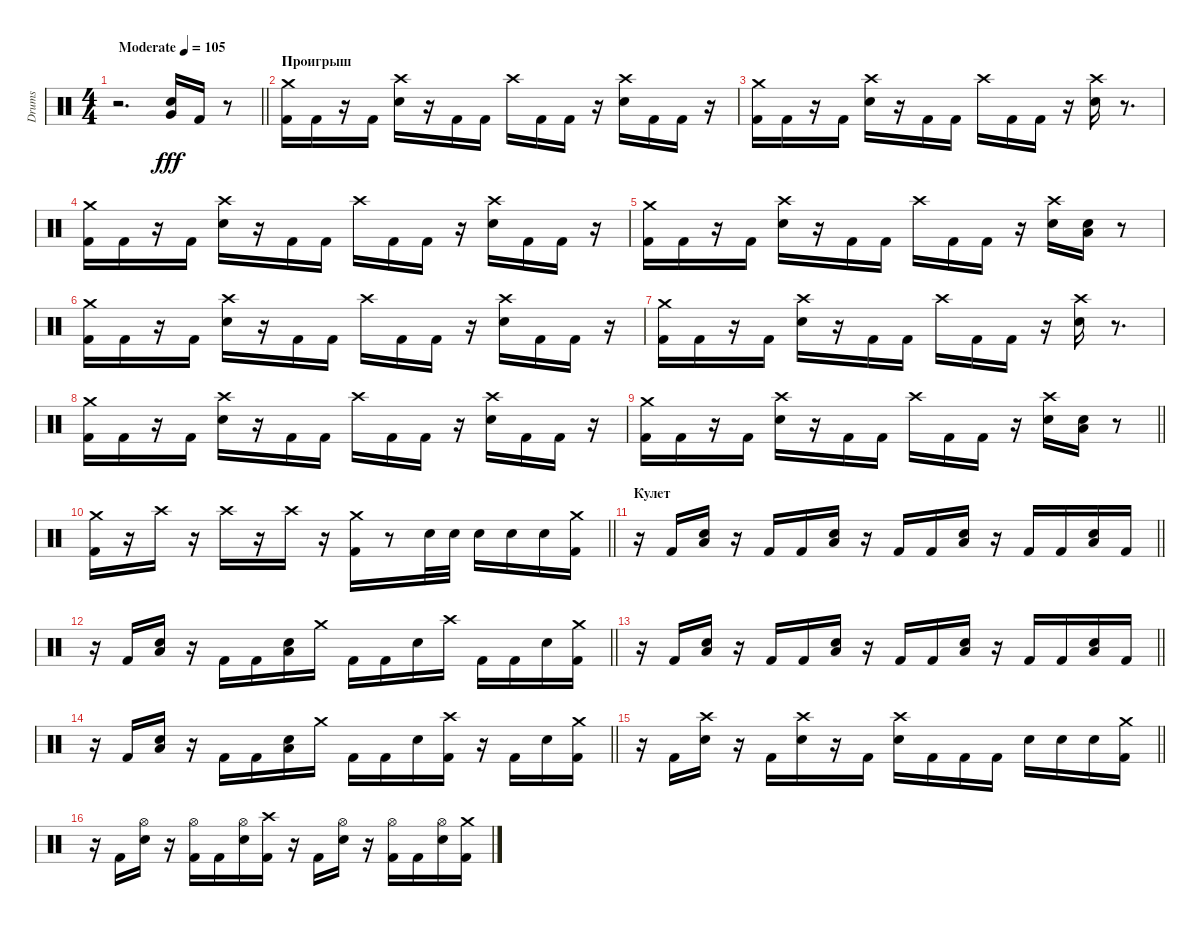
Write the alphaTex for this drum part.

\track ("Drums" "Drums") {instrument percussion}
\staff {score}
\articulation defaults
\ts (4 4)
\tempo (105 "Moderate")
\clef neutral
\barLineRight lightlight
\ks c
r.2{d dy fff} ("Electric Snare (hit)" "Very Low Tom (hit)").16 "Kick (hit) 2".16 r.8 |
\section ("" "Проигрыш")
("Kick (hit) 2" "Crash medium (hit)").16 "Kick (hit) 2".16 r.16 "Kick (hit) 2".16 ("Electric Snare (hit)" "Crash high (hit)").16 r.16 "Kick (hit) 2".16 "Kick (hit) 2".16 "Crash high (hit)".16 "Kick (hit) 2".16 "Kick (hit) 2".16 r.16 ("Electric Snare (hit)" "Crash high (hit)").16 "Kick (hit) 2".16 "Kick (hit) 2".16 r.16 |
("Kick (hit) 2" "Crash medium (hit)").16 "Kick (hit) 2".16 r.16 "Kick (hit) 2".16 ("Electric Snare (hit)" "Crash high (hit)").16 r.16 "Kick (hit) 2".16 "Kick (hit) 2".16 "Crash high (hit)".16 "Kick (hit) 2".16 "Kick (hit) 2".16 r.16 ("Electric Snare (hit)" "Crash high (hit)").16 r.8{d} |
("Kick (hit) 2" "Crash medium (hit)").16 "Kick (hit) 2".16 r.16 "Kick (hit) 2".16 ("Electric Snare (hit)" "Crash high (hit)").16 r.16 "Kick (hit) 2".16 "Kick (hit) 2".16 "Crash high (hit)".16 "Kick (hit) 2".16 "Kick (hit) 2".16 r.16 ("Electric Snare (hit)" "Crash high (hit)").16 "Kick (hit) 2".16 "Kick (hit) 2".16 r.16 |
("Kick (hit) 2" "Crash medium (hit)").16 "Kick (hit) 2".16 r.16 "Kick (hit) 2".16 ("Electric Snare (hit)" "Crash high (hit)").16 r.16 "Kick (hit) 2".16 "Kick (hit) 2".16 "Crash high (hit)".16 "Kick (hit) 2".16 "Kick (hit) 2".16 r.16 ("Electric Snare (hit)" "Crash high (hit)").16 ("Electric Snare (hit)" "Low Floor Tom (hit)").16 r.8 |
("Kick (hit) 2" "Crash medium (hit)").16 "Kick (hit) 2".16 r.16 "Kick (hit) 2".16 ("Electric Snare (hit)" "Crash high (hit)").16 r.16 "Kick (hit) 2".16 "Kick (hit) 2".16 "Crash high (hit)".16 "Kick (hit) 2".16 "Kick (hit) 2".16 r.16 ("Electric Snare (hit)" "Crash high (hit)").16 "Kick (hit) 2".16 "Kick (hit) 2".16 r.16 |
("Kick (hit) 2" "Crash medium (hit)").16 "Kick (hit) 2".16 r.16 "Kick (hit) 2".16 ("Electric Snare (hit)" "Crash high (hit)").16 r.16 "Kick (hit) 2".16 "Kick (hit) 2".16 "Crash high (hit)".16 "Kick (hit) 2".16 "Kick (hit) 2".16 r.16 ("Electric Snare (hit)" "Crash high (hit)").16 r.8{d} |
("Kick (hit) 2" "Crash medium (hit)").16 "Kick (hit) 2".16 r.16 "Kick (hit) 2".16 ("Electric Snare (hit)" "Crash high (hit)").16 r.16 "Kick (hit) 2".16 "Kick (hit) 2".16 "Crash high (hit)".16 "Kick (hit) 2".16 "Kick (hit) 2".16 r.16 ("Electric Snare (hit)" "Crash high (hit)").16 "Kick (hit) 2".16 "Kick (hit) 2".16 r.16 |
\barLineRight lightlight
("Kick (hit) 2" "Crash medium (hit)").16 "Kick (hit) 2".16 r.16 "Kick (hit) 2".16 ("Electric Snare (hit)" "Crash high (hit)").16 r.16 "Kick (hit) 2".16 "Kick (hit) 2".16 "Crash high (hit)".16 "Kick (hit) 2".16 "Kick (hit) 2".16 r.16 ("Electric Snare (hit)" "Crash high (hit)").16 ("Electric Snare (hit)" "Low Floor Tom (hit)").16 r.8 |
\section ("" "")
\barLineRight lightlight
("Kick (hit) 2" "Crash medium (hit)").16 r.16 "Crash high (hit)".16 r.16 "Crash high (hit)".16 r.16 "Crash high (hit)".16 r.16 ("Kick (hit) 2" "Crash medium (hit)").16 r.8 "Electric Snare (hit)".32 "Electric Snare (hit)".32 "Electric Snare (hit)".16 "Electric Snare (hit)".16 "Electric Snare (hit)".16 ("Kick (hit) 2" "Crash medium (hit)").16 |
\section ("" "Кулет")
\barLineRight lightlight
r.16 "Kick (hit) 2".16 ("Electric Snare (hit)" "Low Floor Tom (hit)").16 r.16 "Kick (hit) 2".16 "Kick (hit) 2".16 ("Electric Snare (hit)" "Low Floor Tom (hit)").16 r.16 "Kick (hit) 2".16 "Kick (hit) 2".16 ("Electric Snare (hit)" "Low Floor Tom (hit)").16 r.16 "Kick (hit) 2".16 "Kick (hit) 2".16 ("Electric Snare (hit)" "Low Floor Tom (hit)").16 "Kick (hit) 2".16 |
\barLineRight lightlight
r.16 "Kick (hit) 2".16 ("Electric Snare (hit)" "Low Floor Tom (hit)").16 r.16 "Kick (hit) 2".16 "Kick (hit) 2".16 ("Electric Snare (hit)" "Low Floor Tom (hit)").16 "Crash medium (hit)".16 "Kick (hit) 2".16 "Kick (hit) 2".16 "Electric Snare (hit)".16 "Crash high (hit)".16 "Kick (hit) 2".16 "Kick (hit) 2".16 "Electric Snare (hit)".16 ("Kick (hit) 2" "Crash medium (hit)").16 |
\section ("" "")
\barLineRight lightlight
r.16 "Kick (hit) 2".16 ("Electric Snare (hit)" "Low Floor Tom (hit)").16 r.16 "Kick (hit) 2".16 "Kick (hit) 2".16 ("Electric Snare (hit)" "Low Floor Tom (hit)").16 r.16 "Kick (hit) 2".16 "Kick (hit) 2".16 ("Electric Snare (hit)" "Low Floor Tom (hit)").16 r.16 "Kick (hit) 2".16 "Kick (hit) 2".16 ("Electric Snare (hit)" "Low Floor Tom (hit)").16 "Kick (hit) 2".16 |
\section ("" "")
\barLineRight lightlight
r.16 "Kick (hit) 2".16 ("Electric Snare (hit)" "Low Floor Tom (hit)").16 r.16 "Kick (hit) 2".16 "Kick (hit) 2".16 ("Electric Snare (hit)" "Low Floor Tom (hit)").16 "Crash medium (hit)".16 "Kick (hit) 2".16 "Kick (hit) 2".16 "Electric Snare (hit)".16 ("Kick (hit) 2" "Crash high (hit)").16 r.16 "Kick (hit) 2".16 "Electric Snare (hit)".16 ("Kick (hit) 2" "Crash medium (hit)").16 |
\barLineRight lightlight
r.16 "Kick (hit) 2".16 ("Electric Snare (hit)" "Crash high (hit)").16 r.16 "Kick (hit) 2".16 ("Electric Snare (hit)" "Crash high (hit)").16 r.16 "Kick (hit) 2".16 ("Electric Snare (hit)" "Crash high (hit)").16 "Kick (hit) 2".16 "Kick (hit) 2".16 "Kick (hit) 2".16 "Electric Snare (hit)".16 "Electric Snare (hit)".16 "Electric Snare (hit)".16 ("Kick (hit) 2" "Crash medium (hit)").16 |
r.16 "Kick (hit) 2".16 ("Electric Snare (hit)" "Hi-Hat (open)").16 r.16 ("Kick (hit) 2" "Hi-Hat (open)").16 "Kick (hit) 2".16 ("Electric Snare (hit)" "Hi-Hat (open)").16 ("Kick (hit) 2" "Crash high (hit)").16 r.16 "Kick (hit) 2".16 ("Electric Snare (hit)" "Hi-Hat (open)").16 r.16 ("Kick (hit) 2" "Hi-Hat (open)").16 "Kick (hit) 2".16 ("Electric Snare (hit)" "Hi-Hat (open)").16 ("Kick (hit) 2" "Crash medium (hit)").16
